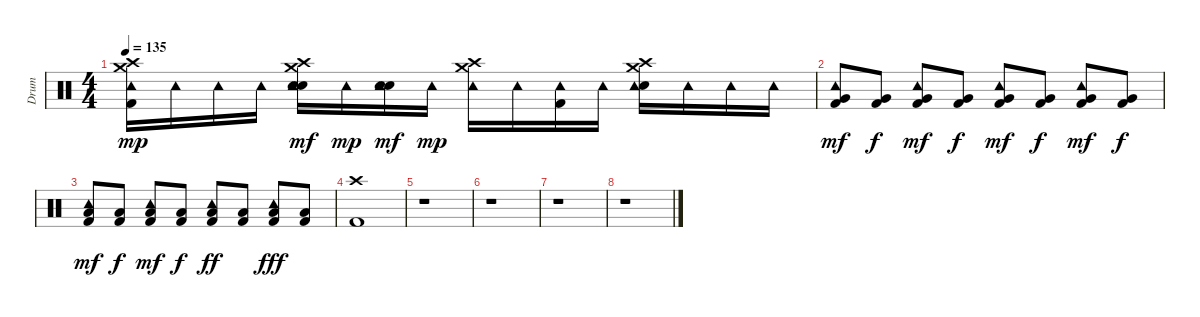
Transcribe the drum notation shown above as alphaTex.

\track ("Drum" "Drum") {instrument percussion}
\staff {score}
\articulation defaults
\ts (4 4)
\tempo 135
\clef neutral
\ks c
("Crash high (hit)" "Crash medium (hit)" "Tambourine (hit)" "Kick (hit) 2").16{dy mp} "Tambourine (hit)".16 "Tambourine (hit)".16 "Tambourine (hit)".16 ("Crash high (hit)" "Crash medium (hit)" "Electric Snare (hit)" "Tambourine (hit)" "Hand Clap (hit)").16{dy mf} "Tambourine (hit)".16{dy mp} ("Electric Snare (hit)" "Tambourine (hit)" "Hand Clap (hit)").16{dy mf} "Tambourine (hit)".16{dy mp} ("Crash high (hit)" "Crash medium (hit)" "Tambourine (hit)").16 "Tambourine (hit)".16 ("Tambourine (hit)" "Kick (hit) 2").16 "Tambourine (hit)".16 ("Crash high (hit)" "Crash medium (hit)" "Electric Snare (hit)" "Tambourine (hit)").16 "Tambourine (hit)".16 "Tambourine (hit)".16 "Tambourine (hit)".16 |
("Tambourine (hit)" "Very Low Tom (hit)" "Kick (hit) 2").8{dy mf volume 11} ("Very Low Tom (hit)" "Kick (hit) 2").8{dy f} ("Tambourine (hit)" "Very Low Tom (hit)" "Kick (hit) 2").8{dy mf volume 16} ("Very Low Tom (hit)" "Kick (hit) 2").8{dy f} ("Tambourine (hit)" "Very Low Tom (hit)" "Kick (hit) 2").8{dy mf} ("Very Low Tom (hit)" "Kick (hit) 2").8{dy f} ("Tambourine (hit)" "Very Low Tom (hit)" "Kick (hit) 2").8{dy mf} ("Very Low Tom (hit)" "Kick (hit) 2").8{dy f} |
("Tambourine (hit)" "Low Tom (hit)" "Kick (hit) 2").8{dy mf volume 11} ("Low Tom (hit)" "Kick (hit) 2").8{dy f} ("Tambourine (hit)" "Low Tom (hit)" "Kick (hit) 2").8{dy mf volume 16} ("Low Tom (hit)" "Kick (hit) 2").8{dy f} ("Tambourine (hit)" "Low Tom (hit)" "Kick (hit) 2").8{dy ff} ("Low Tom (hit)" "Kick (hit) 2").8 ("Tambourine (hit)" "Low Tom (hit)" "Kick (hit) 2").8{dy fff} ("Low Tom (hit)" "Kick (hit) 2").8 |
("Crash high (hit)" "Kick (hit) 2").1 |
r.1 |
r.1 |
r.1 |
r.1
